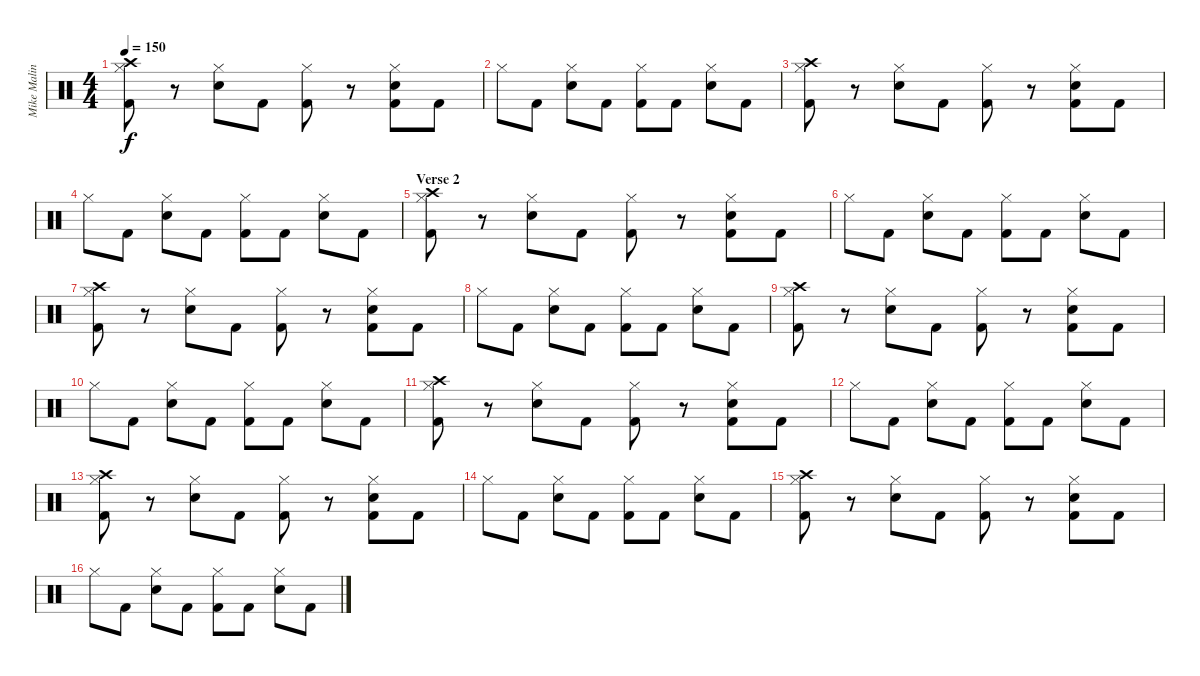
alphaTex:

\track ("Mike Malinin - Drums" "Mike Malin") {instrument percussion}
\staff {score}
\articulation defaults
\ts (4 4)
\tempo 150
\clef neutral
\ks c
("Crash high (hit)" "Hi-Hat (closed)" "Kick (hit) 2").8{dy f} r.8 ("Hi-Hat (closed)" "Snare (hit) 2").8 "Kick (hit) 2".8 ("Hi-Hat (closed)" "Kick (hit) 2").8 r.8 ("Hi-Hat (closed)" "Snare (hit) 2" "Kick (hit) 2").8 "Kick (hit) 2".8 |
"Hi-Hat (closed)".8 "Kick (hit) 2".8 ("Hi-Hat (closed)" "Snare (hit) 2").8 "Kick (hit) 2".8 ("Hi-Hat (closed)" "Kick (hit) 2").8 "Kick (hit) 2".8 ("Hi-Hat (closed)" "Snare (hit) 2").8 "Kick (hit) 2".8 |
("Crash high (hit)" "Hi-Hat (closed)" "Kick (hit) 2").8 r.8 ("Hi-Hat (closed)" "Snare (hit) 2").8 "Kick (hit) 2".8 ("Hi-Hat (closed)" "Kick (hit) 2").8 r.8 ("Hi-Hat (closed)" "Snare (hit) 2" "Kick (hit) 2").8 "Kick (hit) 2".8 |
"Hi-Hat (closed)".8 "Kick (hit) 2".8 ("Hi-Hat (closed)" "Snare (hit) 2").8 "Kick (hit) 2".8 ("Hi-Hat (closed)" "Kick (hit) 2").8 "Kick (hit) 2".8 ("Hi-Hat (closed)" "Snare (hit) 2").8 "Kick (hit) 2".8 |
\section ("" "Verse 2")
("Crash high (hit)" "Hi-Hat (closed)" "Kick (hit) 2").8 r.8 ("Hi-Hat (closed)" "Snare (hit) 2").8 "Kick (hit) 2".8 ("Hi-Hat (closed)" "Kick (hit) 2").8 r.8 ("Hi-Hat (closed)" "Snare (hit) 2" "Kick (hit) 2").8 "Kick (hit) 2".8 |
"Hi-Hat (closed)".8 "Kick (hit) 2".8 ("Hi-Hat (closed)" "Snare (hit) 2").8 "Kick (hit) 2".8 ("Hi-Hat (closed)" "Kick (hit) 2").8 "Kick (hit) 2".8 ("Hi-Hat (closed)" "Snare (hit) 2").8 "Kick (hit) 2".8 |
("Crash high (hit)" "Hi-Hat (closed)" "Kick (hit) 2").8 r.8 ("Hi-Hat (closed)" "Snare (hit) 2").8 "Kick (hit) 2".8 ("Hi-Hat (closed)" "Kick (hit) 2").8 r.8 ("Hi-Hat (closed)" "Snare (hit) 2" "Kick (hit) 2").8 "Kick (hit) 2".8 |
"Hi-Hat (closed)".8 "Kick (hit) 2".8 ("Hi-Hat (closed)" "Snare (hit) 2").8 "Kick (hit) 2".8 ("Hi-Hat (closed)" "Kick (hit) 2").8 "Kick (hit) 2".8 ("Hi-Hat (closed)" "Snare (hit) 2").8 "Kick (hit) 2".8 |
("Crash high (hit)" "Hi-Hat (closed)" "Kick (hit) 2").8 r.8 ("Hi-Hat (closed)" "Snare (hit) 2").8 "Kick (hit) 2".8 ("Hi-Hat (closed)" "Kick (hit) 2").8 r.8 ("Hi-Hat (closed)" "Snare (hit) 2" "Kick (hit) 2").8 "Kick (hit) 2".8 |
"Hi-Hat (closed)".8 "Kick (hit) 2".8 ("Hi-Hat (closed)" "Snare (hit) 2").8 "Kick (hit) 2".8 ("Hi-Hat (closed)" "Kick (hit) 2").8 "Kick (hit) 2".8 ("Hi-Hat (closed)" "Snare (hit) 2").8 "Kick (hit) 2".8 |
("Crash high (hit)" "Hi-Hat (closed)" "Kick (hit) 2").8 r.8 ("Hi-Hat (closed)" "Snare (hit) 2").8 "Kick (hit) 2".8 ("Hi-Hat (closed)" "Kick (hit) 2").8 r.8 ("Hi-Hat (closed)" "Snare (hit) 2" "Kick (hit) 2").8 "Kick (hit) 2".8 |
"Hi-Hat (closed)".8 "Kick (hit) 2".8 ("Hi-Hat (closed)" "Snare (hit) 2").8 "Kick (hit) 2".8 ("Hi-Hat (closed)" "Kick (hit) 2").8 "Kick (hit) 2".8 ("Hi-Hat (closed)" "Snare (hit) 2").8 "Kick (hit) 2".8 |
("Crash high (hit)" "Hi-Hat (closed)" "Kick (hit) 2").8 r.8 ("Hi-Hat (closed)" "Snare (hit) 2").8 "Kick (hit) 2".8 ("Hi-Hat (closed)" "Kick (hit) 2").8 r.8 ("Hi-Hat (closed)" "Snare (hit) 2" "Kick (hit) 2").8 "Kick (hit) 2".8 |
"Hi-Hat (closed)".8 "Kick (hit) 2".8 ("Hi-Hat (closed)" "Snare (hit) 2").8 "Kick (hit) 2".8 ("Hi-Hat (closed)" "Kick (hit) 2").8 "Kick (hit) 2".8 ("Hi-Hat (closed)" "Snare (hit) 2").8 "Kick (hit) 2".8 |
("Crash high (hit)" "Hi-Hat (closed)" "Kick (hit) 2").8 r.8 ("Hi-Hat (closed)" "Snare (hit) 2").8 "Kick (hit) 2".8 ("Hi-Hat (closed)" "Kick (hit) 2").8 r.8 ("Hi-Hat (closed)" "Snare (hit) 2" "Kick (hit) 2").8 "Kick (hit) 2".8 |
"Hi-Hat (closed)".8 "Kick (hit) 2".8 ("Hi-Hat (closed)" "Snare (hit) 2").8 "Kick (hit) 2".8 ("Hi-Hat (closed)" "Kick (hit) 2").8 "Kick (hit) 2".8 ("Hi-Hat (closed)" "Snare (hit) 2").8 "Kick (hit) 2".8
